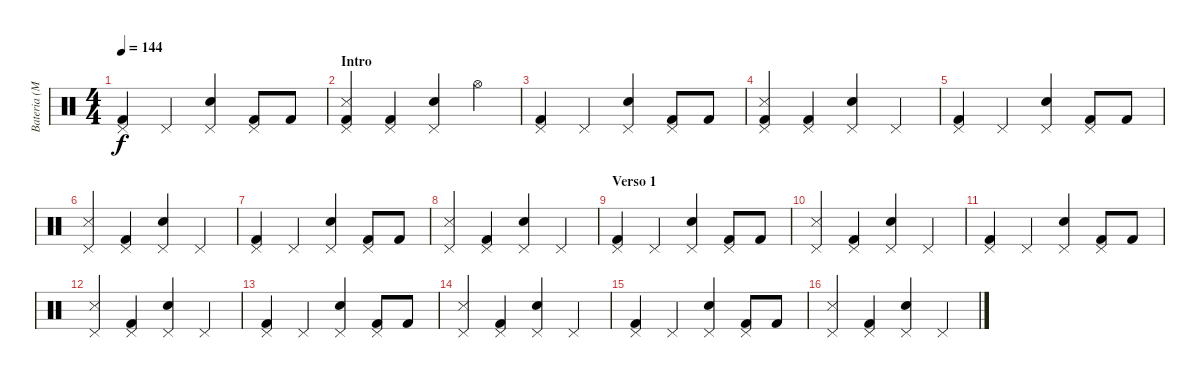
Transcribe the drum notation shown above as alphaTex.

\track ("Bateria (Matt)" "Bateria (M") {instrument percussion}
\staff {score}
\articulation defaults
\ts (4 4)
\tempo 144
\clef neutral
\ks c
("Pedal Hi-Hat (hit)" "Kick (hit) 2").4{dy f} "Pedal Hi-Hat (hit)".4 ("Pedal Hi-Hat (hit)" "Snare (hit) 2").4 ("Pedal Hi-Hat (hit)" "Kick (hit) 2").8 "Kick (hit) 2".8 |
\section ("" "Intro")
("Pedal Hi-Hat (hit)" "Snare (side stick) 3" "Kick (hit) 2").4 ("Pedal Hi-Hat (hit)" "Kick (hit) 2").4 ("Pedal Hi-Hat (hit)" "Snare (hit) 2").4 "Hi-Hat (open)".4 |
("Pedal Hi-Hat (hit)" "Kick (hit) 2").4 "Pedal Hi-Hat (hit)".4 ("Pedal Hi-Hat (hit)" "Snare (hit) 2").4 ("Pedal Hi-Hat (hit)" "Kick (hit) 2").8 "Kick (hit) 2".8 |
("Pedal Hi-Hat (hit)" "Snare (side stick) 3" "Kick (hit) 2").4 ("Pedal Hi-Hat (hit)" "Kick (hit) 2").4 ("Pedal Hi-Hat (hit)" "Snare (hit) 2").4 "Pedal Hi-Hat (hit)".4 |
("Pedal Hi-Hat (hit)" "Kick (hit) 2").4 "Pedal Hi-Hat (hit)".4 ("Pedal Hi-Hat (hit)" "Snare (hit) 2").4 ("Pedal Hi-Hat (hit)" "Kick (hit) 2").8 "Kick (hit) 2".8 |
("Pedal Hi-Hat (hit)" "Snare (side stick) 3").4 ("Pedal Hi-Hat (hit)" "Kick (hit) 2").4 ("Pedal Hi-Hat (hit)" "Snare (hit) 2").4 "Pedal Hi-Hat (hit)".4 |
("Pedal Hi-Hat (hit)" "Kick (hit) 2").4 "Pedal Hi-Hat (hit)".4 ("Pedal Hi-Hat (hit)" "Snare (hit) 2").4 ("Pedal Hi-Hat (hit)" "Kick (hit) 2").8 "Kick (hit) 2".8 |
("Pedal Hi-Hat (hit)" "Snare (side stick) 3").4 ("Pedal Hi-Hat (hit)" "Kick (hit) 2").4 ("Pedal Hi-Hat (hit)" "Snare (hit) 2").4 "Pedal Hi-Hat (hit)".4 |
\section ("" "Verso 1")
("Pedal Hi-Hat (hit)" "Kick (hit) 2").4 "Pedal Hi-Hat (hit)".4 ("Pedal Hi-Hat (hit)" "Snare (hit) 2").4 ("Pedal Hi-Hat (hit)" "Kick (hit) 2").8 "Kick (hit) 2".8 |
("Pedal Hi-Hat (hit)" "Snare (side stick) 3").4 ("Pedal Hi-Hat (hit)" "Kick (hit) 2").4 ("Pedal Hi-Hat (hit)" "Snare (hit) 2").4 "Pedal Hi-Hat (hit)".4 |
("Pedal Hi-Hat (hit)" "Kick (hit) 2").4 "Pedal Hi-Hat (hit)".4 ("Pedal Hi-Hat (hit)" "Snare (hit) 2").4 ("Pedal Hi-Hat (hit)" "Kick (hit) 2").8 "Kick (hit) 2".8 |
("Pedal Hi-Hat (hit)" "Snare (side stick) 3").4 ("Pedal Hi-Hat (hit)" "Kick (hit) 2").4 ("Pedal Hi-Hat (hit)" "Snare (hit) 2").4 "Pedal Hi-Hat (hit)".4 |
("Pedal Hi-Hat (hit)" "Kick (hit) 2").4 "Pedal Hi-Hat (hit)".4 ("Pedal Hi-Hat (hit)" "Snare (hit) 2").4 ("Pedal Hi-Hat (hit)" "Kick (hit) 2").8 "Kick (hit) 2".8 |
("Pedal Hi-Hat (hit)" "Snare (side stick) 3").4 ("Pedal Hi-Hat (hit)" "Kick (hit) 2").4 ("Pedal Hi-Hat (hit)" "Snare (hit) 2").4 "Pedal Hi-Hat (hit)".4 |
("Pedal Hi-Hat (hit)" "Kick (hit) 2").4 "Pedal Hi-Hat (hit)".4 ("Pedal Hi-Hat (hit)" "Snare (hit) 2").4 ("Pedal Hi-Hat (hit)" "Kick (hit) 2").8 "Kick (hit) 2".8 |
("Pedal Hi-Hat (hit)" "Snare (side stick) 3").4 ("Pedal Hi-Hat (hit)" "Kick (hit) 2").4 ("Pedal Hi-Hat (hit)" "Snare (hit) 2").4 "Pedal Hi-Hat (hit)".4
